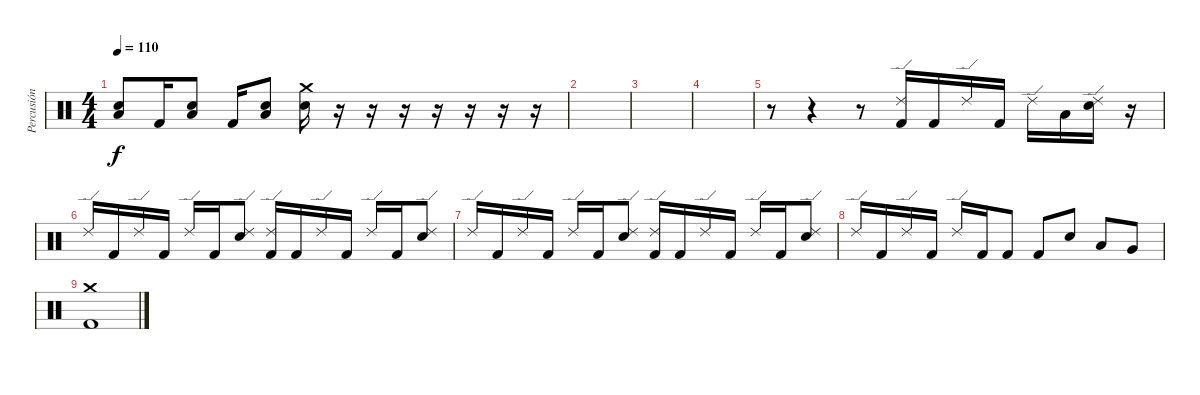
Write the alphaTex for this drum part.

\track ("Percusión" "Percusión") {instrument percussion}
\staff {score}
\articulation defaults
\ts (4 4)
\tempo 110
\clef neutral
\ks c
("Low Floor Tom (hit)" "Electric Snare (hit)").8{dy f} "Kick (hit) 2".16 ("Low Floor Tom (hit)" "Electric Snare (hit)").8 "Kick (hit) 2".16 ("Low Floor Tom (hit)" "Electric Snare (hit)").8 ("Electric Snare (hit)" "Crash medium (hit)").16 r.16 r.16 r.16 r.16 r.16 r.16 r.16 |
|
|
|
r.8 r.4 r.8 ("Ride (edge) 2" "Kick (hit) 2").16 "Kick (hit) 2".16 "Ride (edge) 2".16 "Kick (hit) 2".16 "Ride (edge) 2".16 "Low Tom (hit)".16 ("Ride (edge) 2" "Electric Snare (hit)").16 r.16 |
"Ride (edge) 2".16 "Kick (hit) 2".16 "Ride (edge) 2".16 "Kick (hit) 2".16 "Ride (edge) 2".16 "Kick (hit) 2".16 ("Ride (edge) 2" "Electric Snare (hit)").8 ("Ride (edge) 2" "Kick (hit) 2").16 "Kick (hit) 2".16 "Ride (edge) 2".16 "Kick (hit) 2".16 "Ride (edge) 2".16 "Kick (hit) 2".16 ("Ride (edge) 2" "Electric Snare (hit)").8 |
"Ride (edge) 2".16 "Kick (hit) 2".16 "Ride (edge) 2".16 "Kick (hit) 2".16 "Ride (edge) 2".16 "Kick (hit) 2".16 ("Ride (edge) 2" "Electric Snare (hit)").8 ("Ride (edge) 2" "Kick (hit) 2").16 "Kick (hit) 2".16 "Ride (edge) 2".16 "Kick (hit) 2".16 "Ride (edge) 2".16 "Kick (hit) 2".16 ("Ride (edge) 2" "Electric Snare (hit)").8 |
"Ride (edge) 2".16 "Kick (hit) 2".16 "Ride (edge) 2".16 "Kick (hit) 2".16 "Ride (edge) 2".16 "Kick (hit) 2".16 "Kick (hit) 2".8 "Kick (hit) 2".8 "Electric Snare (hit)".8 "Low Tom (hit)".8 "Very Low Tom (hit)".8 |
("Crash medium (hit)" "Kick (hit) 2").1
